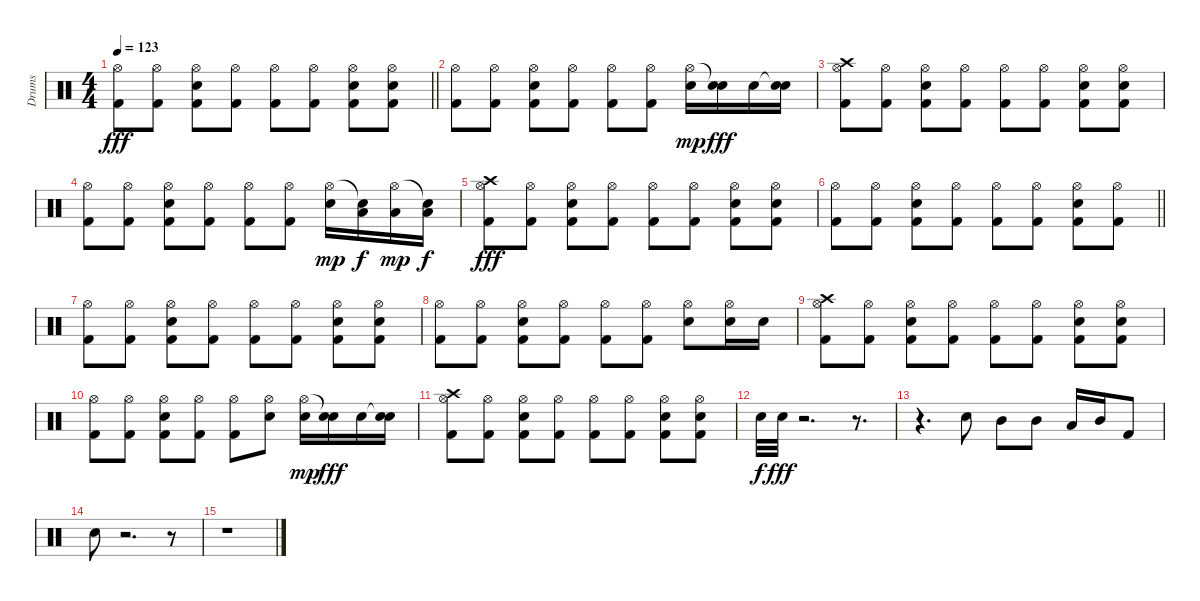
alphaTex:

\track ("Drums" "Drums") {instrument percussion}
\staff {score}
\articulation defaults
\ts (4 4)
\tempo 123
\clef neutral
\barLineRight lightlight
\ks c
("Hi-Hat (open)" "Kick (hit) 2").8{dy fff} ("Hi-Hat (open)" "Kick (hit) 2").8 ("Hi-Hat (open)" "Kick (hit) 2" "Snare (hit) 2").8 ("Hi-Hat (open)" "Kick (hit) 2").8 ("Hi-Hat (open)" "Kick (hit) 2").8 ("Hi-Hat (open)" "Kick (hit) 2").8 ("Hi-Hat (open)" "Kick (hit) 2" "Snare (hit) 2").8 ("Hi-Hat (open)" "Kick (hit) 2" "Snare (hit) 2").8 |
("Hi-Hat (open)" "Kick (hit) 2").8 ("Hi-Hat (open)" "Kick (hit) 2").8 ("Hi-Hat (open)" "Kick (hit) 2" "Snare (hit) 2").8 ("Hi-Hat (open)" "Kick (hit) 2").8 ("Hi-Hat (open)" "Kick (hit) 2").8 ("Hi-Hat (open)" "Kick (hit) 2").8 ("Hi-Hat (open)" "Snare (hit) 2").16{dy mp} ("Snare (hit)"{t} "Snare (hit) 2").16{dy fff} "Snare (hit) 2".16 ("Snare (hit)"{t} "Snare (hit) 2").16 |
("Hi-Hat (open)" "Kick (hit) 2" "Crash high (hit)").8 ("Hi-Hat (open)" "Kick (hit) 2").8 ("Hi-Hat (open)" "Kick (hit) 2" "Snare (hit) 2").8 ("Hi-Hat (open)" "Kick (hit) 2").8 ("Hi-Hat (open)" "Kick (hit) 2").8 ("Hi-Hat (open)" "Kick (hit) 2").8 ("Hi-Hat (open)" "Kick (hit) 2" "Snare (hit) 2").8 ("Hi-Hat (open)" "Kick (hit) 2" "Snare (hit) 2").8 |
("Hi-Hat (open)" "Kick (hit) 2").8 ("Hi-Hat (open)" "Kick (hit) 2").8 ("Hi-Hat (open)" "Kick (hit) 2" "Snare (hit) 2").8 ("Hi-Hat (open)" "Kick (hit) 2").8 ("Hi-Hat (open)" "Kick (hit) 2").8 ("Hi-Hat (open)" "Kick (hit) 2").8 ("Hi-Hat (open)" "Snare (hit) 2").16{dy mp} ("Snare (hit)"{t} "Low Tom (hit)").16{dy f} ("Hi-Hat (open)" "Low Tom (hit)").16{dy mp} ("Snare (hit)"{t} "Low Tom (hit)").16{dy f} |
("Hi-Hat (open)" "Kick (hit) 2" "Crash high (hit)").8{dy fff} ("Hi-Hat (open)" "Kick (hit) 2").8 ("Hi-Hat (open)" "Kick (hit) 2" "Snare (hit) 2").8 ("Hi-Hat (open)" "Kick (hit) 2").8 ("Hi-Hat (open)" "Kick (hit) 2").8 ("Hi-Hat (open)" "Kick (hit) 2").8 ("Hi-Hat (open)" "Kick (hit) 2" "Snare (hit) 2").8 ("Hi-Hat (open)" "Kick (hit) 2" "Snare (hit) 2").8 |
\barLineRight lightlight
("Hi-Hat (open)" "Kick (hit) 2").8 ("Hi-Hat (open)" "Kick (hit) 2").8 ("Hi-Hat (open)" "Kick (hit) 2" "Snare (hit) 2").8 ("Hi-Hat (open)" "Kick (hit) 2").8 ("Hi-Hat (open)" "Kick (hit) 2").8 ("Hi-Hat (open)" "Kick (hit) 2").8 ("Hi-Hat (open)" "Kick (hit) 2" "Snare (hit) 2").8 ("Hi-Hat (open)" "Kick (hit) 2").8 |
("Hi-Hat (open)" "Kick (hit) 2").8 ("Hi-Hat (open)" "Kick (hit) 2").8 ("Hi-Hat (open)" "Kick (hit) 2" "Snare (hit) 2").8 ("Hi-Hat (open)" "Kick (hit) 2").8 ("Hi-Hat (open)" "Kick (hit) 2").8 ("Hi-Hat (open)" "Kick (hit) 2").8 ("Hi-Hat (open)" "Kick (hit) 2" "Snare (hit) 2").8 ("Hi-Hat (open)" "Kick (hit) 2" "Snare (hit) 2").8 |
("Hi-Hat (open)" "Kick (hit) 2").8 ("Hi-Hat (open)" "Kick (hit) 2").8 ("Hi-Hat (open)" "Kick (hit) 2" "Snare (hit) 2").8 ("Hi-Hat (open)" "Kick (hit) 2").8 ("Hi-Hat (open)" "Kick (hit) 2").8 ("Hi-Hat (open)" "Kick (hit) 2").8 ("Hi-Hat (open)" "Snare (hit) 2").8 ("Hi-Hat (open)" "Snare (hit) 2").16 "Snare (hit) 2".16 |
("Hi-Hat (open)" "Kick (hit) 2" "Crash high (hit)").8 ("Hi-Hat (open)" "Kick (hit) 2").8 ("Hi-Hat (open)" "Kick (hit) 2" "Snare (hit) 2").8 ("Hi-Hat (open)" "Kick (hit) 2").8 ("Hi-Hat (open)" "Kick (hit) 2").8 ("Hi-Hat (open)" "Kick (hit) 2").8 ("Hi-Hat (open)" "Kick (hit) 2" "Snare (hit) 2").8 ("Hi-Hat (open)" "Kick (hit) 2" "Snare (hit) 2").8 |
("Hi-Hat (open)" "Kick (hit) 2").8 ("Hi-Hat (open)" "Kick (hit) 2").8 ("Hi-Hat (open)" "Kick (hit) 2" "Snare (hit) 2").8 ("Hi-Hat (open)" "Kick (hit) 2").8 ("Hi-Hat (open)" "Kick (hit) 2").8 ("Hi-Hat (open)" "Snare (hit) 2").8 ("Hi-Hat (open)" "Snare (hit) 2").16{dy mp} ("Snare (hit)"{t} "Snare (hit) 2").16{dy fff} "Snare (hit) 2".16 ("Snare (hit)"{t} "Snare (hit) 2").16 |
("Hi-Hat (open)" "Kick (hit) 2" "Crash high (hit)").8 ("Hi-Hat (open)" "Kick (hit) 2").8 ("Hi-Hat (open)" "Kick (hit) 2" "Snare (hit) 2").8 ("Hi-Hat (open)" "Kick (hit) 2").8 ("Hi-Hat (open)" "Kick (hit) 2").8 ("Hi-Hat (open)" "Kick (hit) 2").8 ("Hi-Hat (open)" "Kick (hit) 2" "Snare (hit) 2").8 ("Hi-Hat (open)" "Kick (hit) 2" "Snare (hit) 2").8 |
"Snare (hit) 2".32{dy f} "Snare (hit) 2".32{dy fff} r.2{d} r.8{d} |
r.4{d} "Snare (hit) 2".8 "Mid Tom (hit)".8 "Mid Tom (hit)".8 "Low Tom (hit)".16 "Mid Tom (hit)".16 "Kick (hit) 2".8 |
"Snare (hit) 2".8 r.2{d} r.8 |
r.1
